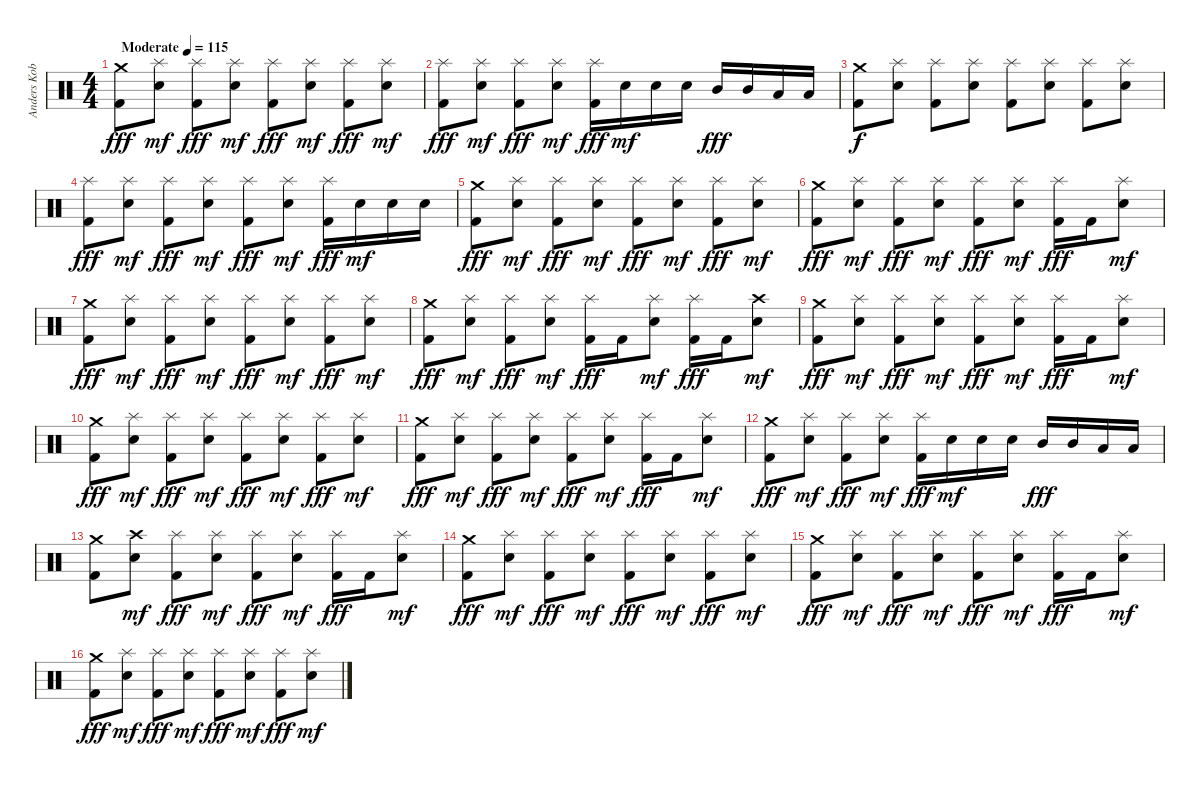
\track ("Anders Kobro " "Anders Kob") {instrument percussion}
\staff {score}
\articulation defaults
\ts (4 4)
\tempo (115 "Moderate")
\clef neutral
\ks c
("Crash medium (hit)" "Kick (hit) 2").8{dy fff} ("Splash (hit)" "Snare (hit) 2").8{dy mf} ("Splash (hit)" "Kick (hit) 2").8{dy fff} ("Splash (hit)" "Snare (hit) 2").8{dy mf} ("Splash (hit)" "Kick (hit) 2").8{dy fff} ("Splash (hit)" "Snare (hit) 2").8{dy mf} ("Splash (hit)" "Kick (hit) 2").8{dy fff} ("Splash (hit)" "Snare (hit) 2").8{dy mf} |
("Splash (hit)" "Kick (hit) 2").8{dy fff} ("Splash (hit)" "Snare (hit) 2").8{dy mf} ("Splash (hit)" "Kick (hit) 2").8{dy fff} ("Splash (hit)" "Snare (hit) 2").8{dy mf} ("Splash (hit)" "Kick (hit) 2").16{dy fff} "Snare (hit) 2".16{dy mf} "Snare (hit) 2".16 "Snare (hit) 2".16 "Mid Tom (hit)".16{dy fff} "Mid Tom (hit)".16 "Low Tom (hit)".16 "Low Tom (hit)".16 |
("Crash medium (hit)" "Kick (hit) 2").8{dy f} ("Splash (hit)" "Snare (hit) 2").8 ("Splash (hit)" "Kick (hit) 2").8 ("Splash (hit)" "Snare (hit) 2").8 ("Splash (hit)" "Kick (hit) 2").8 ("Splash (hit)" "Snare (hit) 2").8 ("Splash (hit)" "Kick (hit) 2").8 ("Splash (hit)" "Snare (hit) 2").8 |
("Splash (hit)" "Kick (hit) 2").8{dy fff} ("Splash (hit)" "Snare (hit) 2").8{dy mf} ("Splash (hit)" "Kick (hit) 2").8{dy fff} ("Splash (hit)" "Snare (hit) 2").8{dy mf} ("Splash (hit)" "Kick (hit) 2").8{dy fff} ("Splash (hit)" "Snare (hit) 2").8{dy mf} ("Splash (hit)" "Kick (hit) 2").16{dy fff} "Snare (hit) 2".16{dy mf} "Snare (hit) 2".16 "Snare (hit) 2".16 |
("Crash medium (hit)" "Kick (hit) 2").8{dy fff} ("Splash (hit)" "Snare (hit) 2").8{dy mf} ("Splash (hit)" "Kick (hit) 2").8{dy fff} ("Splash (hit)" "Snare (hit) 2").8{dy mf} ("Splash (hit)" "Kick (hit) 2").8{dy fff} ("Splash (hit)" "Snare (hit) 2").8{dy mf} ("Splash (hit)" "Kick (hit) 2").8{dy fff} ("Splash (hit)" "Snare (hit) 2").8{dy mf} |
("Crash medium (hit)" "Kick (hit) 2").8{dy fff} ("Splash (hit)" "Snare (hit) 2").8{dy mf} ("Splash (hit)" "Kick (hit) 2").8{dy fff} ("Splash (hit)" "Snare (hit) 2").8{dy mf} ("Splash (hit)" "Kick (hit) 2").8{dy fff} ("Splash (hit)" "Snare (hit) 2").8{dy mf} ("Splash (hit)" "Kick (hit) 2").16{dy fff} "Kick (hit) 2".16 ("Splash (hit)" "Snare (hit) 2").8{dy mf} |
("Crash medium (hit)" "Kick (hit) 2").8{dy fff} ("Splash (hit)" "Snare (hit) 2").8{dy mf} ("Splash (hit)" "Kick (hit) 2").8{dy fff} ("Splash (hit)" "Snare (hit) 2").8{dy mf} ("Splash (hit)" "Kick (hit) 2").8{dy fff} ("Splash (hit)" "Snare (hit) 2").8{dy mf} ("Splash (hit)" "Kick (hit) 2").8{dy fff} ("Splash (hit)" "Snare (hit) 2").8{dy mf} |
("Crash medium (hit)" "Kick (hit) 2").8{dy fff} ("Splash (hit)" "Snare (hit) 2").8{dy mf} ("Splash (hit)" "Kick (hit) 2").8{dy fff} ("Splash (hit)" "Snare (hit) 2").8{dy mf} ("Splash (hit)" "Kick (hit) 2").16{dy fff} "Kick (hit) 2".16 ("Splash (hit)" "Snare (hit) 2").8{dy mf} ("Splash (hit)" "Kick (hit) 2").16{dy fff} "Kick (hit) 2".16 ("Crash high (hit)" "Snare (hit) 2").8{dy mf} |
("Crash medium (hit)" "Kick (hit) 2").8{dy fff} ("Splash (hit)" "Snare (hit) 2").8{dy mf} ("Splash (hit)" "Kick (hit) 2").8{dy fff} ("Splash (hit)" "Snare (hit) 2").8{dy mf} ("Splash (hit)" "Kick (hit) 2").8{dy fff} ("Splash (hit)" "Snare (hit) 2").8{dy mf} ("Splash (hit)" "Kick (hit) 2").16{dy fff} "Kick (hit) 2".16 ("Splash (hit)" "Snare (hit) 2").8{dy mf} |
("Crash medium (hit)" "Kick (hit) 2").8{dy fff} ("Splash (hit)" "Snare (hit) 2").8{dy mf} ("Splash (hit)" "Kick (hit) 2").8{dy fff} ("Splash (hit)" "Snare (hit) 2").8{dy mf} ("Splash (hit)" "Kick (hit) 2").8{dy fff} ("Splash (hit)" "Snare (hit) 2").8{dy mf} ("Splash (hit)" "Kick (hit) 2").8{dy fff} ("Splash (hit)" "Snare (hit) 2").8{dy mf} |
("Crash medium (hit)" "Kick (hit) 2").8{dy fff} ("Splash (hit)" "Snare (hit) 2").8{dy mf} ("Splash (hit)" "Kick (hit) 2").8{dy fff} ("Splash (hit)" "Snare (hit) 2").8{dy mf} ("Splash (hit)" "Kick (hit) 2").8{dy fff} ("Splash (hit)" "Snare (hit) 2").8{dy mf} ("Splash (hit)" "Kick (hit) 2").16{dy fff} "Kick (hit) 2".16 ("Splash (hit)" "Snare (hit) 2").8{dy mf} |
("Crash medium (hit)" "Kick (hit) 2").8{dy fff} ("Splash (hit)" "Snare (hit) 2").8{dy mf} ("Splash (hit)" "Kick (hit) 2").8{dy fff} ("Splash (hit)" "Snare (hit) 2").8{dy mf} ("Splash (hit)" "Kick (hit) 2").16{dy fff} "Snare (hit) 2".16{dy mf} "Snare (hit) 2".16 "Snare (hit) 2".16 "Mid Tom (hit)".16{dy fff} "Mid Tom (hit)".16 "Low Tom (hit)".16 "Low Tom (hit)".16 |
("Crash medium (hit)" "Kick (hit) 2").8 ("Crash high (hit)" "Snare (hit) 2").8{dy mf} ("Splash (hit)" "Kick (hit) 2").8{dy fff} ("Splash (hit)" "Snare (hit) 2").8{dy mf} ("Splash (hit)" "Kick (hit) 2").8{dy fff} ("Splash (hit)" "Snare (hit) 2").8{dy mf} ("Splash (hit)" "Kick (hit) 2").16{dy fff} "Kick (hit) 2".16 ("Splash (hit)" "Snare (hit) 2").8{dy mf} |
("Crash medium (hit)" "Kick (hit) 2").8{dy fff} ("Splash (hit)" "Snare (hit) 2").8{dy mf} ("Splash (hit)" "Kick (hit) 2").8{dy fff} ("Splash (hit)" "Snare (hit) 2").8{dy mf} ("Splash (hit)" "Kick (hit) 2").8{dy fff} ("Splash (hit)" "Snare (hit) 2").8{dy mf} ("Splash (hit)" "Kick (hit) 2").8{dy fff} ("Splash (hit)" "Snare (hit) 2").8{dy mf} |
("Crash medium (hit)" "Kick (hit) 2").8{dy fff} ("Splash (hit)" "Snare (hit) 2").8{dy mf} ("Splash (hit)" "Kick (hit) 2").8{dy fff} ("Splash (hit)" "Snare (hit) 2").8{dy mf} ("Splash (hit)" "Kick (hit) 2").8{dy fff} ("Splash (hit)" "Snare (hit) 2").8{dy mf} ("Splash (hit)" "Kick (hit) 2").16{dy fff} "Kick (hit) 2".16 ("Splash (hit)" "Snare (hit) 2").8{dy mf} |
("Crash medium (hit)" "Kick (hit) 2").8{dy fff} ("Splash (hit)" "Snare (hit) 2").8{dy mf} ("Splash (hit)" "Kick (hit) 2").8{dy fff} ("Splash (hit)" "Snare (hit) 2").8{dy mf} ("Splash (hit)" "Kick (hit) 2").8{dy fff} ("Splash (hit)" "Snare (hit) 2").8{dy mf} ("Splash (hit)" "Kick (hit) 2").8{dy fff} ("Splash (hit)" "Snare (hit) 2").8{dy mf}
